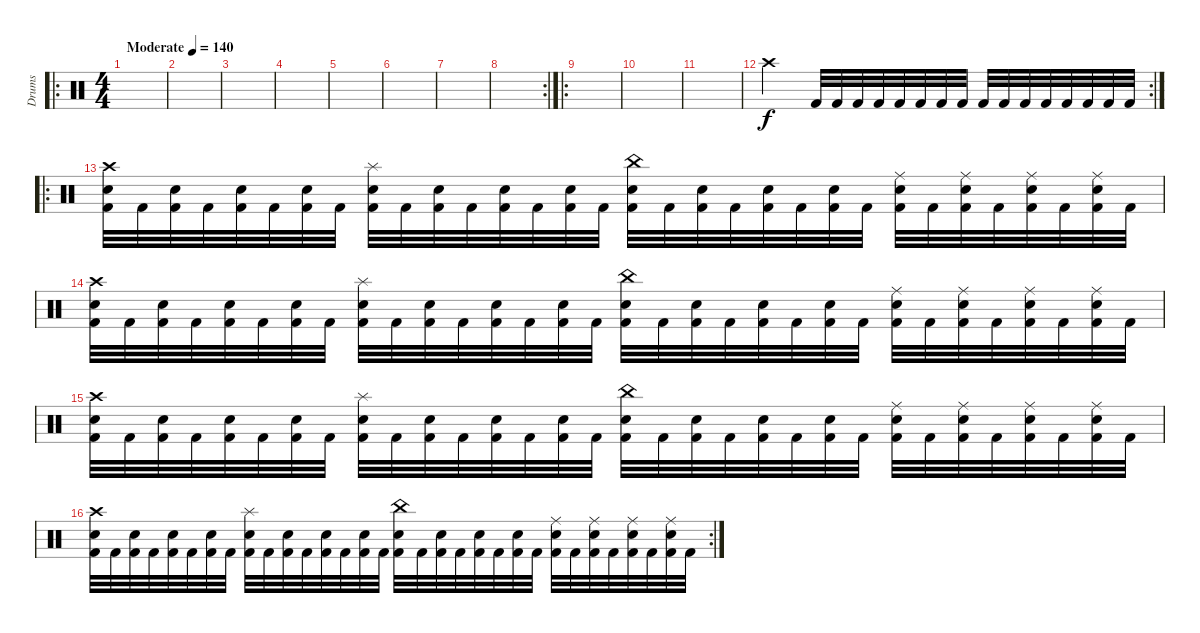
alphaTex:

\track ("Drums" "Drums") {instrument percussion}
\staff {score}
\articulation defaults
\ro
\ts (4 4)
\tempo (140 "Moderate")
\clef neutral
\ks c
|
|
|
|
|
|
|
\rc 2
|
\ro
|
|
|
\rc 2 "Crash high (hit)".2 "Kick (hit) 2".32 "Kick (hit) 2".32 "Kick (hit) 2".32 "Kick (hit) 2".32 "Kick (hit) 2".32 "Kick (hit) 2".32 "Kick (hit) 2".32 "Kick (hit) 2".32 "Kick (hit) 2".32 "Kick (hit) 2".32 "Kick (hit) 2".32 "Kick (hit) 2".32 "Kick (hit) 2".32 "Kick (hit) 2".32 "Kick (hit) 2".32 "Kick (hit) 2".32
|
\ro
("Crash high (hit)" "Snare (hit) 2" "Kick (hit) 2").32 "Kick (hit) 2".32 ("Snare (hit) 2" "Kick (hit) 2").32 "Kick (hit) 2".32 ("Snare (hit) 2" "Kick (hit) 2").32 "Kick (hit) 2".32 ("Snare (hit) 2" "Kick (hit) 2").32 "Kick (hit) 2".32 ("Splash (hit)" "Snare (hit) 2" "Kick (hit) 2").32 "Kick (hit) 2".32 ("Snare (hit) 2" "Kick (hit) 2").32 "Kick (hit) 2".32 ("Snare (hit) 2" "Kick (hit) 2").32 "Kick (hit) 2".32 ("Snare (hit) 2" "Kick (hit) 2").32 "Kick (hit) 2".32 ("China (hit)" "Snare (hit) 2" "Kick (hit) 2").32 "Kick (hit) 2".32 ("Snare (hit) 2" "Kick (hit) 2").32 "Kick (hit) 2".32 ("Snare (hit) 2" "Kick (hit) 2").32 "Kick (hit) 2".32 ("Snare (hit) 2" "Kick (hit) 2").32 "Kick (hit) 2".32 ("Ride (middle)" "Snare (hit) 2" "Kick (hit) 2").32 "Kick (hit) 2".32 ("Ride (middle)" "Snare (hit) 2" "Kick (hit) 2").32 "Kick (hit) 2".32 ("Ride (middle)" "Snare (hit) 2" "Kick (hit) 2").32 "Kick (hit) 2".32 ("Ride (middle)" "Snare (hit) 2" "Kick (hit) 2").32 "Kick (hit) 2".32 |
("Crash high (hit)" "Snare (hit) 2" "Kick (hit) 2").32 "Kick (hit) 2".32 ("Snare (hit) 2" "Kick (hit) 2").32 "Kick (hit) 2".32 ("Snare (hit) 2" "Kick (hit) 2").32 "Kick (hit) 2".32 ("Snare (hit) 2" "Kick (hit) 2").32 "Kick (hit) 2".32 ("Splash (hit)" "Snare (hit) 2" "Kick (hit) 2").32 "Kick (hit) 2".32 ("Snare (hit) 2" "Kick (hit) 2").32 "Kick (hit) 2".32 ("Snare (hit) 2" "Kick (hit) 2").32 "Kick (hit) 2".32 ("Snare (hit) 2" "Kick (hit) 2").32 "Kick (hit) 2".32 ("China (hit)" "Snare (hit) 2" "Kick (hit) 2").32 "Kick (hit) 2".32 ("Snare (hit) 2" "Kick (hit) 2").32 "Kick (hit) 2".32 ("Snare (hit) 2" "Kick (hit) 2").32 "Kick (hit) 2".32 ("Snare (hit) 2" "Kick (hit) 2").32 "Kick (hit) 2".32 ("Ride (middle)" "Snare (hit) 2" "Kick (hit) 2").32 "Kick (hit) 2".32 ("Ride (middle)" "Snare (hit) 2" "Kick (hit) 2").32 "Kick (hit) 2".32 ("Ride (middle)" "Snare (hit) 2" "Kick (hit) 2").32 "Kick (hit) 2".32 ("Ride (middle)" "Snare (hit) 2" "Kick (hit) 2").32 "Kick (hit) 2".32 |
("Crash high (hit)" "Snare (hit) 2" "Kick (hit) 2").32 "Kick (hit) 2".32 ("Snare (hit) 2" "Kick (hit) 2").32 "Kick (hit) 2".32 ("Snare (hit) 2" "Kick (hit) 2").32 "Kick (hit) 2".32 ("Snare (hit) 2" "Kick (hit) 2").32 "Kick (hit) 2".32 ("Splash (hit)" "Snare (hit) 2" "Kick (hit) 2").32 "Kick (hit) 2".32 ("Snare (hit) 2" "Kick (hit) 2").32 "Kick (hit) 2".32 ("Snare (hit) 2" "Kick (hit) 2").32 "Kick (hit) 2".32 ("Snare (hit) 2" "Kick (hit) 2").32 "Kick (hit) 2".32 ("China (hit)" "Snare (hit) 2" "Kick (hit) 2").32 "Kick (hit) 2".32 ("Snare (hit) 2" "Kick (hit) 2").32 "Kick (hit) 2".32 ("Snare (hit) 2" "Kick (hit) 2").32 "Kick (hit) 2".32 ("Snare (hit) 2" "Kick (hit) 2").32 "Kick (hit) 2".32 ("Ride (middle)" "Snare (hit) 2" "Kick (hit) 2").32 "Kick (hit) 2".32 ("Ride (middle)" "Snare (hit) 2" "Kick (hit) 2").32 "Kick (hit) 2".32 ("Ride (middle)" "Snare (hit) 2" "Kick (hit) 2").32 "Kick (hit) 2".32 ("Ride (middle)" "Snare (hit) 2" "Kick (hit) 2").32 "Kick (hit) 2".32 |
\rc 2
("Crash high (hit)" "Snare (hit) 2" "Kick (hit) 2").32 "Kick (hit) 2".32 ("Snare (hit) 2" "Kick (hit) 2").32 "Kick (hit) 2".32 ("Snare (hit) 2" "Kick (hit) 2").32 "Kick (hit) 2".32 ("Snare (hit) 2" "Kick (hit) 2").32 "Kick (hit) 2".32 ("Splash (hit)" "Snare (hit) 2" "Kick (hit) 2").32 "Kick (hit) 2".32 ("Snare (hit) 2" "Kick (hit) 2").32 "Kick (hit) 2".32 ("Snare (hit) 2" "Kick (hit) 2").32 "Kick (hit) 2".32 ("Snare (hit) 2" "Kick (hit) 2").32 "Kick (hit) 2".32 ("China (hit)" "Snare (hit) 2" "Kick (hit) 2").32 "Kick (hit) 2".32 ("Snare (hit) 2" "Kick (hit) 2").32 "Kick (hit) 2".32 ("Snare (hit) 2" "Kick (hit) 2").32 "Kick (hit) 2".32 ("Snare (hit) 2" "Kick (hit) 2").32 "Kick (hit) 2".32 ("Ride (middle)" "Snare (hit) 2" "Kick (hit) 2").32 "Kick (hit) 2".32 ("Ride (middle)" "Snare (hit) 2" "Kick (hit) 2").32 "Kick (hit) 2".32 ("Ride (middle)" "Snare (hit) 2" "Kick (hit) 2").32 "Kick (hit) 2".32 ("Ride (middle)" "Snare (hit) 2" "Kick (hit) 2").32 "Kick (hit) 2".32
